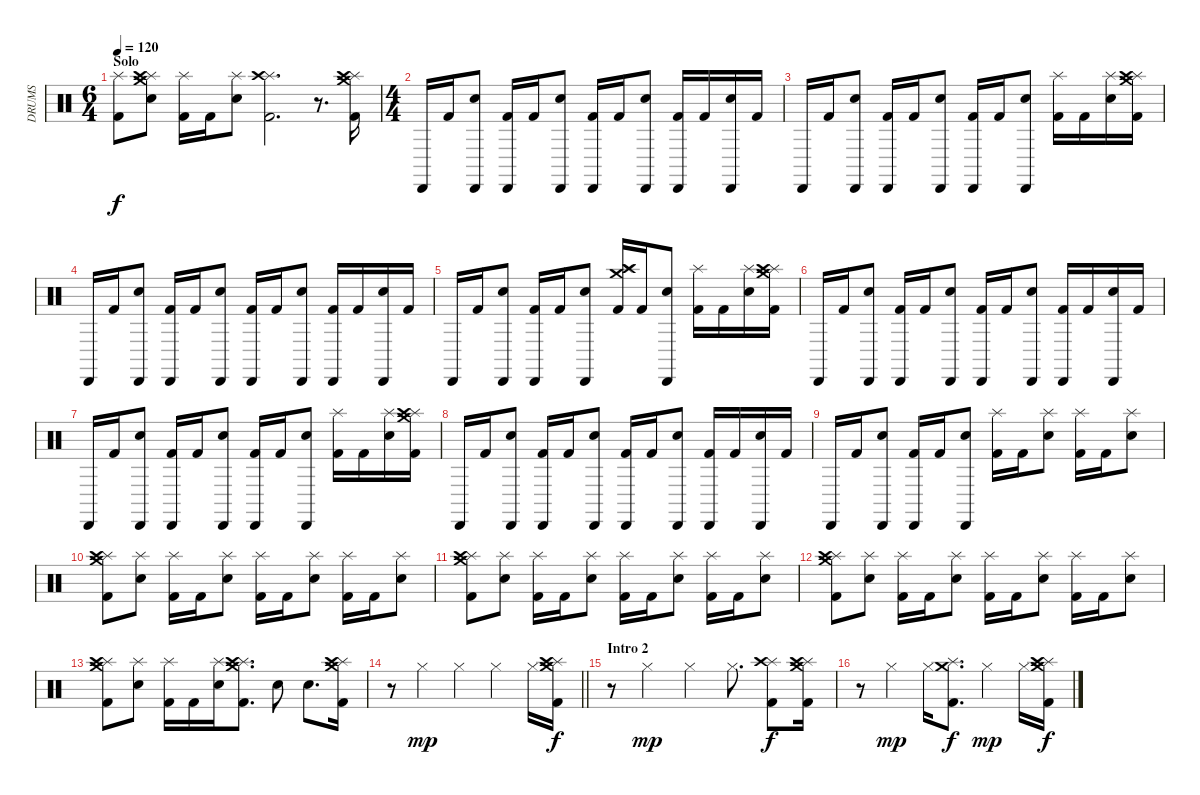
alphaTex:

\track ("DRUMS" "DRUMS") {instrument percussion}
\staff {score}
\articulation defaults
\ts (6 4)
\section ("" "Solo")
\tempo 120
\clef neutral
\ks c
("Splash (hit)" "Kick (hit) 2").8{dy f} ("Crash medium (hit)" "Splash (hit)" "Crash high (hit)" "Electric Snare (hit)").8 ("Splash (hit)" "Kick (hit) 2").16 "Kick (hit) 2".16 ("Splash (hit)" "Electric Snare (hit)").8 ("Splash (hit)" "Crash high (hit)" "Kick (hit) 2").2{d} r.8{d} ("Crash medium (hit)" "Splash (hit)" "Crash high (hit)" "Kick (hit) 2").16 |
\ts (4 4)
"Cabasa (hit)".16 "Kick (hit) 2".16 ("Cabasa (hit)" "Electric Snare (hit)").8 ("Cabasa (hit)" "Kick (hit) 2").16 "Kick (hit) 2".16 ("Cabasa (hit)" "Electric Snare (hit)").8 ("Cabasa (hit)" "Kick (hit) 2").16 "Kick (hit) 2".16 ("Cabasa (hit)" "Electric Snare (hit)").8 ("Cabasa (hit)" "Kick (hit) 2").16 "Kick (hit) 2".16 ("Cabasa (hit)" "Electric Snare (hit)").16 "Kick (hit) 2".16 |
"Cabasa (hit)".16 "Kick (hit) 2".16 ("Cabasa (hit)" "Electric Snare (hit)").8 ("Cabasa (hit)" "Kick (hit) 2").16 "Kick (hit) 2".16 ("Cabasa (hit)" "Electric Snare (hit)").8 ("Cabasa (hit)" "Kick (hit) 2").16 "Kick (hit) 2".16 ("Cabasa (hit)" "Electric Snare (hit)").8 ("Splash (hit)" "Kick (hit) 2").16 "Kick (hit) 2".16 ("Splash (hit)" "Electric Snare (hit)").16 ("Crash medium (hit)" "Splash (hit)" "Crash high (hit)" "Kick (hit) 2").16 |
"Cabasa (hit)".16 "Kick (hit) 2".16 ("Cabasa (hit)" "Electric Snare (hit)").8 ("Cabasa (hit)" "Kick (hit) 2").16 "Kick (hit) 2".16 ("Cabasa (hit)" "Electric Snare (hit)").8 ("Cabasa (hit)" "Kick (hit) 2").16 "Kick (hit) 2".16 ("Cabasa (hit)" "Electric Snare (hit)").8 ("Cabasa (hit)" "Kick (hit) 2").16 "Kick (hit) 2".16 ("Cabasa (hit)" "Electric Snare (hit)").16 "Kick (hit) 2".16 |
"Cabasa (hit)".16 "Kick (hit) 2".16 ("Cabasa (hit)" "Electric Snare (hit)").8 ("Cabasa (hit)" "Kick (hit) 2").16 "Kick (hit) 2".16 ("Cabasa (hit)" "Electric Snare (hit)").8 ("Crash medium (hit)" "Splash (hit)" "Crash high (hit)" "Kick (hit) 2").16 "Kick (hit) 2".16 ("Cabasa (hit)" "Electric Snare (hit)").8 ("Splash (hit)" "Kick (hit) 2").16 "Kick (hit) 2".16 ("Splash (hit)" "Electric Snare (hit)").16 ("Crash medium (hit)" "Splash (hit)" "Crash high (hit)" "Kick (hit) 2").16 |
"Cabasa (hit)".16 "Kick (hit) 2".16 ("Cabasa (hit)" "Electric Snare (hit)").8 ("Cabasa (hit)" "Kick (hit) 2").16 "Kick (hit) 2".16 ("Cabasa (hit)" "Electric Snare (hit)").8 ("Cabasa (hit)" "Kick (hit) 2").16 "Kick (hit) 2".16 ("Cabasa (hit)" "Electric Snare (hit)").8 ("Cabasa (hit)" "Kick (hit) 2").16 "Kick (hit) 2".16 ("Cabasa (hit)" "Electric Snare (hit)").16 "Kick (hit) 2".16 |
"Cabasa (hit)".16 "Kick (hit) 2".16 ("Cabasa (hit)" "Electric Snare (hit)").8 ("Cabasa (hit)" "Kick (hit) 2").16 "Kick (hit) 2".16 ("Cabasa (hit)" "Electric Snare (hit)").8 ("Cabasa (hit)" "Kick (hit) 2").16 "Kick (hit) 2".16 ("Cabasa (hit)" "Electric Snare (hit)").8 ("Splash (hit)" "Kick (hit) 2").16 "Kick (hit) 2".16 ("Splash (hit)" "Electric Snare (hit)").16 ("Crash medium (hit)" "Splash (hit)" "Crash high (hit)" "Kick (hit) 2").16 |
"Cabasa (hit)".16 "Kick (hit) 2".16 ("Cabasa (hit)" "Electric Snare (hit)").8 ("Cabasa (hit)" "Kick (hit) 2").16 "Kick (hit) 2".16 ("Cabasa (hit)" "Electric Snare (hit)").8 ("Cabasa (hit)" "Kick (hit) 2").16 "Kick (hit) 2".16 ("Cabasa (hit)" "Electric Snare (hit)").8 ("Cabasa (hit)" "Kick (hit) 2").16 "Kick (hit) 2".16 ("Cabasa (hit)" "Electric Snare (hit)").16 "Kick (hit) 2".16 |
"Cabasa (hit)".16 "Kick (hit) 2".16 ("Cabasa (hit)" "Electric Snare (hit)").8 ("Cabasa (hit)" "Kick (hit) 2").16 "Kick (hit) 2".16 ("Cabasa (hit)" "Electric Snare (hit)").8 ("Splash (hit)" "Kick (hit) 2").16 "Kick (hit) 2".16 ("Splash (hit)" "Electric Snare (hit)").8 ("Splash (hit)" "Kick (hit) 2").16 "Kick (hit) 2".16 ("Splash (hit)" "Electric Snare (hit)").8 |
("Crash medium (hit)" "Splash (hit)" "Crash high (hit)" "Kick (hit) 2").8 ("Splash (hit)" "Electric Snare (hit)").8 ("Splash (hit)" "Kick (hit) 2").16 "Kick (hit) 2".16 ("Splash (hit)" "Electric Snare (hit)").8 ("Splash (hit)" "Kick (hit) 2").16 "Kick (hit) 2".16 ("Splash (hit)" "Electric Snare (hit)").8 ("Splash (hit)" "Kick (hit) 2").16 "Kick (hit) 2".16 ("Splash (hit)" "Electric Snare (hit)").8 |
("Crash medium (hit)" "Splash (hit)" "Crash high (hit)" "Kick (hit) 2").8 ("Splash (hit)" "Electric Snare (hit)").8 ("Splash (hit)" "Kick (hit) 2").16 "Kick (hit) 2".16 ("Splash (hit)" "Electric Snare (hit)").8 ("Splash (hit)" "Kick (hit) 2").16 "Kick (hit) 2".16 ("Splash (hit)" "Electric Snare (hit)").8 ("Splash (hit)" "Kick (hit) 2").16 "Kick (hit) 2".16 ("Splash (hit)" "Electric Snare (hit)").8 |
("Crash medium (hit)" "Splash (hit)" "Crash high (hit)" "Kick (hit) 2").8 ("Splash (hit)" "Electric Snare (hit)").8 ("Splash (hit)" "Kick (hit) 2").16 "Kick (hit) 2".16 ("Splash (hit)" "Electric Snare (hit)").8 ("Splash (hit)" "Kick (hit) 2").16 "Kick (hit) 2".16 ("Splash (hit)" "Electric Snare (hit)").8 ("Splash (hit)" "Kick (hit) 2").16 "Kick (hit) 2".16 ("Splash (hit)" "Electric Snare (hit)").8 |
("Crash medium (hit)" "Splash (hit)" "Crash high (hit)" "Kick (hit) 2").8 ("Splash (hit)" "Electric Snare (hit)").8 ("Splash (hit)" "Kick (hit) 2").16 "Kick (hit) 2".16 ("Splash (hit)" "Electric Snare (hit)").16 ("Crash medium (hit)" "Splash (hit)" "Crash high (hit)" "Kick (hit) 2").8{d} "Electric Snare (hit)".8 "Electric Snare (hit)".8{d} ("Crash medium (hit)" "Splash (hit)" "Crash high (hit)" "Kick (hit) 2").16 |
\barLineRight lightlight
r.8 "Hi-Hat (closed)".4{dy mp} "Hi-Hat (closed)".4 "Hi-Hat (closed)".4 "Hi-Hat (closed)".16 ("Crash medium (hit)" "Splash (hit)" "Crash high (hit)" "Kick (hit) 2").16{dy f} |
\section ("" "Intro 2")
r.8 "Hi-Hat (closed)".4{dy mp} "Hi-Hat (closed)".4 "Hi-Hat (closed)".8{d} ("Splash (hit)" "Crash high (hit)" "Kick (hit) 2").8{dy f} ("Crash medium (hit)" "Splash (hit)" "Crash high (hit)" "Kick (hit) 2").16 |
r.8 "Hi-Hat (closed)".4{dy mp} "Hi-Hat (closed)".16 ("Crash medium (hit)" "Splash (hit)" "Kick (hit) 2").8{d dy f} "Hi-Hat (closed)".4{dy mp} "Hi-Hat (closed)".16 ("Crash medium (hit)" "Splash (hit)" "Crash high (hit)" "Kick (hit) 2").16{dy f}
